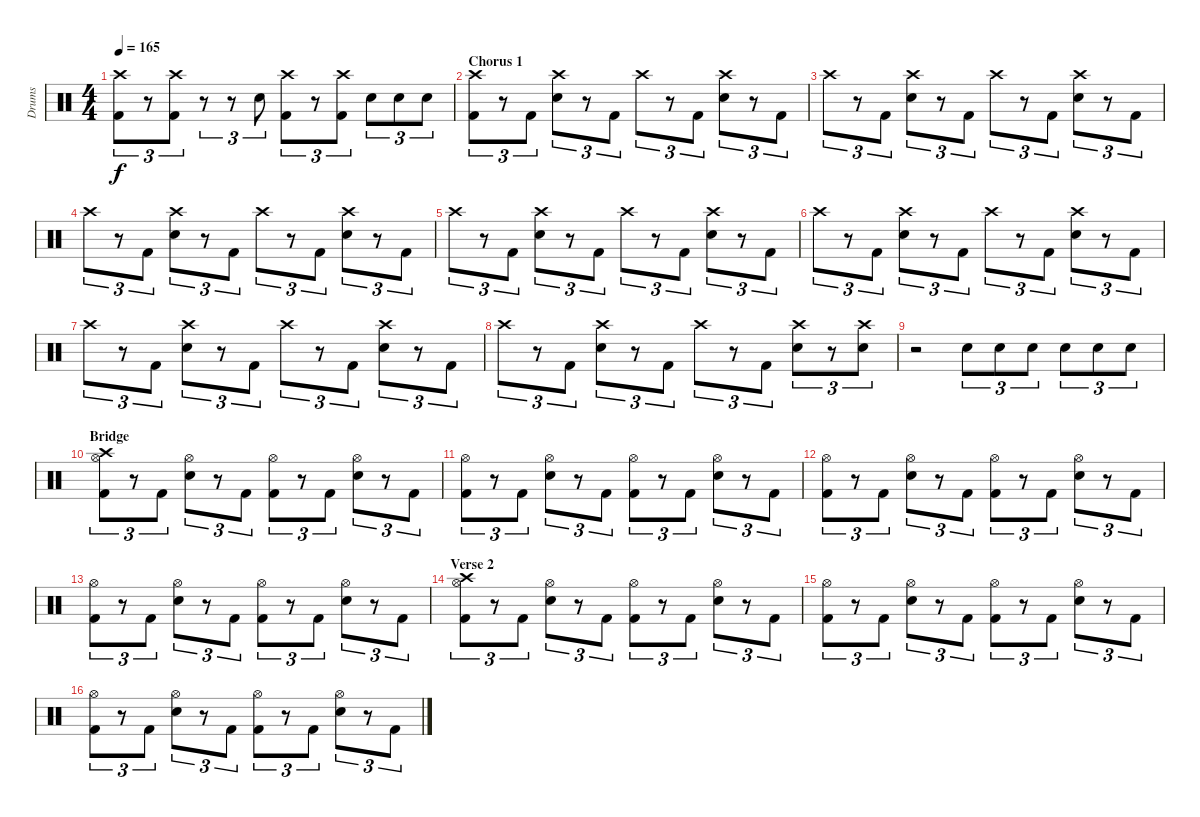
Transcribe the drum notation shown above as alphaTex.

\track ("Drums" "Drums") {instrument percussion}
\staff {score}
\articulation defaults
\ts (4 4)
\tempo 165
\clef neutral
\ks c
("Crash high (hit)" "Kick (hit) 2").8{tu (3 2) dy f} r.8{tu (3 2)} ("Crash high (hit)" "Kick (hit) 2").8{tu (3 2)} r.8{tu (3 2)} r.8{tu (3 2)} "Snare (hit) 2".8{tu (3 2)} ("Crash high (hit)" "Kick (hit) 2").8{tu (3 2)} r.8{tu (3 2)} ("Crash high (hit)" "Kick (hit) 2").8{tu (3 2)} "Snare (hit) 2".8{tu (3 2)} "Snare (hit) 2".8{tu (3 2)} "Snare (hit) 2".8{tu (3 2)} |
\section ("" "Chorus 1")
("Crash high (hit)" "Kick (hit) 2").8{tu (3 2)} r.8{tu (3 2)} "Kick (hit) 2".8{tu (3 2)} ("Crash high (hit)" "Snare (hit) 2").8{tu (3 2)} r.8{tu (3 2)} "Kick (hit) 2".8{tu (3 2)} "Crash high (hit)".8{tu (3 2)} r.8{tu (3 2)} "Kick (hit) 2".8{tu (3 2)} ("Crash high (hit)" "Snare (hit) 2").8{tu (3 2)} r.8{tu (3 2)} "Kick (hit) 2".8{tu (3 2)} |
"Crash high (hit)".8{tu (3 2)} r.8{tu (3 2)} "Kick (hit) 2".8{tu (3 2)} ("Crash high (hit)" "Snare (hit) 2").8{tu (3 2)} r.8{tu (3 2)} "Kick (hit) 2".8{tu (3 2)} "Crash high (hit)".8{tu (3 2)} r.8{tu (3 2)} "Kick (hit) 2".8{tu (3 2)} ("Crash high (hit)" "Snare (hit) 2").8{tu (3 2)} r.8{tu (3 2)} "Kick (hit) 2".8{tu (3 2)} |
"Crash high (hit)".8{tu (3 2)} r.8{tu (3 2)} "Kick (hit) 2".8{tu (3 2)} ("Crash high (hit)" "Snare (hit) 2").8{tu (3 2)} r.8{tu (3 2)} "Kick (hit) 2".8{tu (3 2)} "Crash high (hit)".8{tu (3 2)} r.8{tu (3 2)} "Kick (hit) 2".8{tu (3 2)} ("Crash high (hit)" "Snare (hit) 2").8{tu (3 2)} r.8{tu (3 2)} "Kick (hit) 2".8{tu (3 2)} |
"Crash high (hit)".8{tu (3 2)} r.8{tu (3 2)} "Kick (hit) 2".8{tu (3 2)} ("Crash high (hit)" "Snare (hit) 2").8{tu (3 2)} r.8{tu (3 2)} "Kick (hit) 2".8{tu (3 2)} "Crash high (hit)".8{tu (3 2)} r.8{tu (3 2)} "Kick (hit) 2".8{tu (3 2)} ("Crash high (hit)" "Snare (hit) 2").8{tu (3 2)} r.8{tu (3 2)} "Kick (hit) 2".8{tu (3 2)} |
"Crash high (hit)".8{tu (3 2)} r.8{tu (3 2)} "Kick (hit) 2".8{tu (3 2)} ("Crash high (hit)" "Snare (hit) 2").8{tu (3 2)} r.8{tu (3 2)} "Kick (hit) 2".8{tu (3 2)} "Crash high (hit)".8{tu (3 2)} r.8{tu (3 2)} "Kick (hit) 2".8{tu (3 2)} ("Crash high (hit)" "Snare (hit) 2").8{tu (3 2)} r.8{tu (3 2)} "Kick (hit) 2".8{tu (3 2)} |
"Crash high (hit)".8{tu (3 2)} r.8{tu (3 2)} "Kick (hit) 2".8{tu (3 2)} ("Crash high (hit)" "Snare (hit) 2").8{tu (3 2)} r.8{tu (3 2)} "Kick (hit) 2".8{tu (3 2)} "Crash high (hit)".8{tu (3 2)} r.8{tu (3 2)} "Kick (hit) 2".8{tu (3 2)} ("Crash high (hit)" "Snare (hit) 2").8{tu (3 2)} r.8{tu (3 2)} "Kick (hit) 2".8{tu (3 2)} |
"Crash high (hit)".8{tu (3 2)} r.8{tu (3 2)} "Kick (hit) 2".8{tu (3 2)} ("Crash high (hit)" "Snare (hit) 2").8{tu (3 2)} r.8{tu (3 2)} "Kick (hit) 2".8{tu (3 2)} "Crash high (hit)".8{tu (3 2)} r.8{tu (3 2)} "Kick (hit) 2".8{tu (3 2)} ("Crash high (hit)" "Snare (hit) 2").8{tu (3 2)} r.8{tu (3 2)} ("Crash high (hit)" "Snare (hit) 2").8{tu (3 2)} |
r.2 "Snare (hit) 2".8{tu (3 2)} "Snare (hit) 2".8{tu (3 2)} "Snare (hit) 2".8{tu (3 2)} "Snare (hit) 2".8{tu (3 2)} "Snare (hit) 2".8{tu (3 2)} "Snare (hit) 2".8{tu (3 2)} |
\section ("" "Bridge")
("Hi-Hat (open)" "Crash high (hit)" "Kick (hit) 2").8{tu (3 2)} r.8{tu (3 2)} "Kick (hit) 2".8{tu (3 2)} ("Hi-Hat (open)" "Snare (hit) 2").8{tu (3 2)} r.8{tu (3 2)} "Kick (hit) 2".8{tu (3 2)} ("Hi-Hat (open)" "Kick (hit) 2").8{tu (3 2)} r.8{tu (3 2)} "Kick (hit) 2".8{tu (3 2)} ("Hi-Hat (open)" "Snare (hit) 2").8{tu (3 2)} r.8{tu (3 2)} "Kick (hit) 2".8{tu (3 2)} |
("Hi-Hat (open)" "Kick (hit) 2").8{tu (3 2)} r.8{tu (3 2)} "Kick (hit) 2".8{tu (3 2)} ("Hi-Hat (open)" "Snare (hit) 2").8{tu (3 2)} r.8{tu (3 2)} "Kick (hit) 2".8{tu (3 2)} ("Hi-Hat (open)" "Kick (hit) 2").8{tu (3 2)} r.8{tu (3 2)} "Kick (hit) 2".8{tu (3 2)} ("Hi-Hat (open)" "Snare (hit) 2").8{tu (3 2)} r.8{tu (3 2)} "Kick (hit) 2".8{tu (3 2)} |
("Hi-Hat (open)" "Kick (hit) 2").8{tu (3 2)} r.8{tu (3 2)} "Kick (hit) 2".8{tu (3 2)} ("Hi-Hat (open)" "Snare (hit) 2").8{tu (3 2)} r.8{tu (3 2)} "Kick (hit) 2".8{tu (3 2)} ("Hi-Hat (open)" "Kick (hit) 2").8{tu (3 2)} r.8{tu (3 2)} "Kick (hit) 2".8{tu (3 2)} ("Hi-Hat (open)" "Snare (hit) 2").8{tu (3 2)} r.8{tu (3 2)} "Kick (hit) 2".8{tu (3 2)} |
("Hi-Hat (open)" "Kick (hit) 2").8{tu (3 2)} r.8{tu (3 2)} "Kick (hit) 2".8{tu (3 2)} ("Hi-Hat (open)" "Snare (hit) 2").8{tu (3 2)} r.8{tu (3 2)} "Kick (hit) 2".8{tu (3 2)} ("Hi-Hat (open)" "Kick (hit) 2").8{tu (3 2)} r.8{tu (3 2)} "Kick (hit) 2".8{tu (3 2)} ("Hi-Hat (open)" "Snare (hit) 2").8{tu (3 2)} r.8{tu (3 2)} "Kick (hit) 2".8{tu (3 2)} |
\section ("" "Verse 2")
("Hi-Hat (open)" "Crash high (hit)" "Kick (hit) 2").8{tu (3 2)} r.8{tu (3 2)} "Kick (hit) 2".8{tu (3 2)} ("Hi-Hat (open)" "Snare (hit) 2").8{tu (3 2)} r.8{tu (3 2)} "Kick (hit) 2".8{tu (3 2)} ("Hi-Hat (open)" "Kick (hit) 2").8{tu (3 2)} r.8{tu (3 2)} "Kick (hit) 2".8{tu (3 2)} ("Hi-Hat (open)" "Snare (hit) 2").8{tu (3 2)} r.8{tu (3 2)} "Kick (hit) 2".8{tu (3 2)} |
("Hi-Hat (open)" "Kick (hit) 2").8{tu (3 2)} r.8{tu (3 2)} "Kick (hit) 2".8{tu (3 2)} ("Hi-Hat (open)" "Snare (hit) 2").8{tu (3 2)} r.8{tu (3 2)} "Kick (hit) 2".8{tu (3 2)} ("Hi-Hat (open)" "Kick (hit) 2").8{tu (3 2)} r.8{tu (3 2)} "Kick (hit) 2".8{tu (3 2)} ("Hi-Hat (open)" "Snare (hit) 2").8{tu (3 2)} r.8{tu (3 2)} "Kick (hit) 2".8{tu (3 2)} |
("Hi-Hat (open)" "Kick (hit) 2").8{tu (3 2)} r.8{tu (3 2)} "Kick (hit) 2".8{tu (3 2)} ("Hi-Hat (open)" "Snare (hit) 2").8{tu (3 2)} r.8{tu (3 2)} "Kick (hit) 2".8{tu (3 2)} ("Hi-Hat (open)" "Kick (hit) 2").8{tu (3 2)} r.8{tu (3 2)} "Kick (hit) 2".8{tu (3 2)} ("Hi-Hat (open)" "Snare (hit) 2").8{tu (3 2)} r.8{tu (3 2)} "Kick (hit) 2".8{tu (3 2)}
